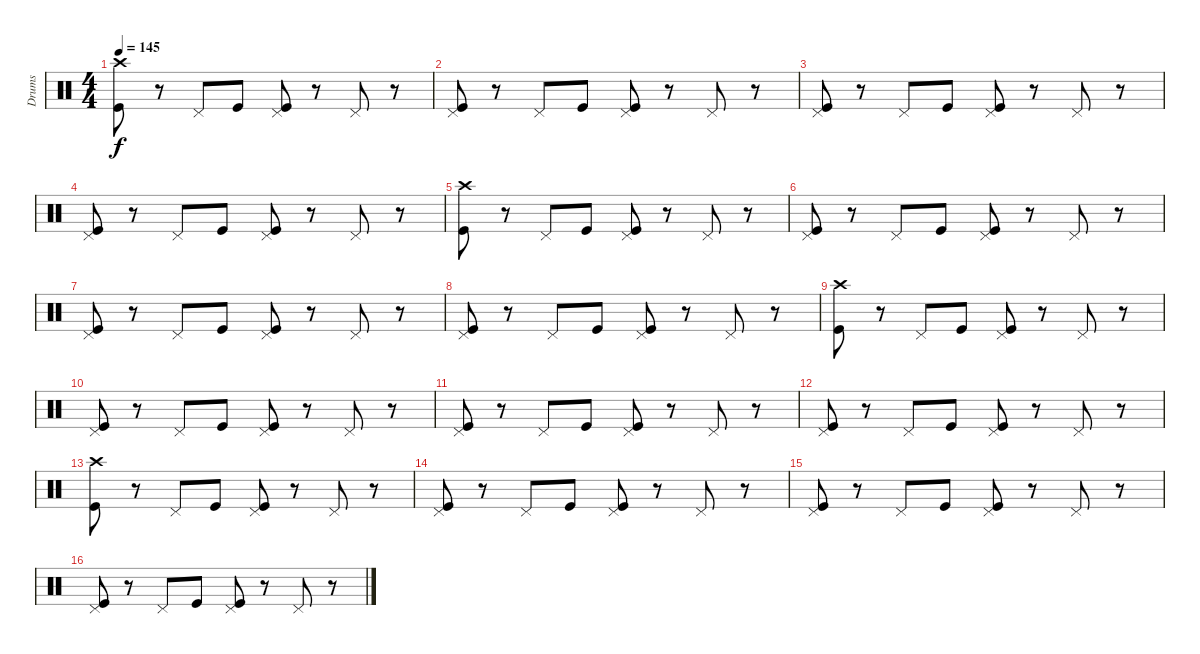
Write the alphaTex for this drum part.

\track ("Drums" "Drums") {instrument percussion}
\staff {score}
\articulation defaults
\ts (4 4)
\tempo 145
\clef neutral
\ks c
("Crash high (hit)" "Kick (hit)").8{dy f} r.8 "Pedal Hi-Hat (hit)".8 "Kick (hit)".8 ("Pedal Hi-Hat (hit)" "Kick (hit)").8 r.8 "Pedal Hi-Hat (hit)".8 r.8 |
("Pedal Hi-Hat (hit)" "Kick (hit)").8 r.8 "Pedal Hi-Hat (hit)".8 "Kick (hit)".8 ("Pedal Hi-Hat (hit)" "Kick (hit)").8 r.8 "Pedal Hi-Hat (hit)".8 r.8 |
("Pedal Hi-Hat (hit)" "Kick (hit)").8 r.8 "Pedal Hi-Hat (hit)".8 "Kick (hit)".8 ("Pedal Hi-Hat (hit)" "Kick (hit)").8 r.8 "Pedal Hi-Hat (hit)".8 r.8 |
("Pedal Hi-Hat (hit)" "Kick (hit)").8 r.8 "Pedal Hi-Hat (hit)".8 "Kick (hit)".8 ("Pedal Hi-Hat (hit)" "Kick (hit)").8 r.8 "Pedal Hi-Hat (hit)".8 r.8 |
("Crash high (hit)" "Kick (hit)").8 r.8 "Pedal Hi-Hat (hit)".8 "Kick (hit)".8 ("Pedal Hi-Hat (hit)" "Kick (hit)").8 r.8 "Pedal Hi-Hat (hit)".8 r.8 |
("Pedal Hi-Hat (hit)" "Kick (hit)").8 r.8 "Pedal Hi-Hat (hit)".8 "Kick (hit)".8 ("Pedal Hi-Hat (hit)" "Kick (hit)").8 r.8 "Pedal Hi-Hat (hit)".8 r.8 |
("Pedal Hi-Hat (hit)" "Kick (hit)").8 r.8 "Pedal Hi-Hat (hit)".8 "Kick (hit)".8 ("Pedal Hi-Hat (hit)" "Kick (hit)").8 r.8 "Pedal Hi-Hat (hit)".8 r.8 |
("Pedal Hi-Hat (hit)" "Kick (hit)").8 r.8 "Pedal Hi-Hat (hit)".8 "Kick (hit)".8 ("Pedal Hi-Hat (hit)" "Kick (hit)").8 r.8 "Pedal Hi-Hat (hit)".8 r.8 |
("Crash high (hit)" "Kick (hit)").8 r.8 "Pedal Hi-Hat (hit)".8 "Kick (hit)".8 ("Pedal Hi-Hat (hit)" "Kick (hit)").8 r.8 "Pedal Hi-Hat (hit)".8 r.8 |
("Pedal Hi-Hat (hit)" "Kick (hit)").8 r.8 "Pedal Hi-Hat (hit)".8 "Kick (hit)".8 ("Pedal Hi-Hat (hit)" "Kick (hit)").8 r.8 "Pedal Hi-Hat (hit)".8 r.8 |
("Pedal Hi-Hat (hit)" "Kick (hit)").8 r.8 "Pedal Hi-Hat (hit)".8 "Kick (hit)".8 ("Pedal Hi-Hat (hit)" "Kick (hit)").8 r.8 "Pedal Hi-Hat (hit)".8 r.8 |
("Pedal Hi-Hat (hit)" "Kick (hit)").8 r.8 "Pedal Hi-Hat (hit)".8 "Kick (hit)".8 ("Pedal Hi-Hat (hit)" "Kick (hit)").8 r.8 "Pedal Hi-Hat (hit)".8 r.8 |
("Crash high (hit)" "Kick (hit)").8 r.8 "Pedal Hi-Hat (hit)".8 "Kick (hit)".8 ("Pedal Hi-Hat (hit)" "Kick (hit)").8 r.8 "Pedal Hi-Hat (hit)".8 r.8 |
("Pedal Hi-Hat (hit)" "Kick (hit)").8 r.8 "Pedal Hi-Hat (hit)".8 "Kick (hit)".8 ("Pedal Hi-Hat (hit)" "Kick (hit)").8 r.8 "Pedal Hi-Hat (hit)".8 r.8 |
("Pedal Hi-Hat (hit)" "Kick (hit)").8 r.8 "Pedal Hi-Hat (hit)".8 "Kick (hit)".8 ("Pedal Hi-Hat (hit)" "Kick (hit)").8 r.8 "Pedal Hi-Hat (hit)".8 r.8 |
("Pedal Hi-Hat (hit)" "Kick (hit)").8 r.8 "Pedal Hi-Hat (hit)".8 "Kick (hit)".8 ("Pedal Hi-Hat (hit)" "Kick (hit)").8 r.8 "Pedal Hi-Hat (hit)".8 r.8
